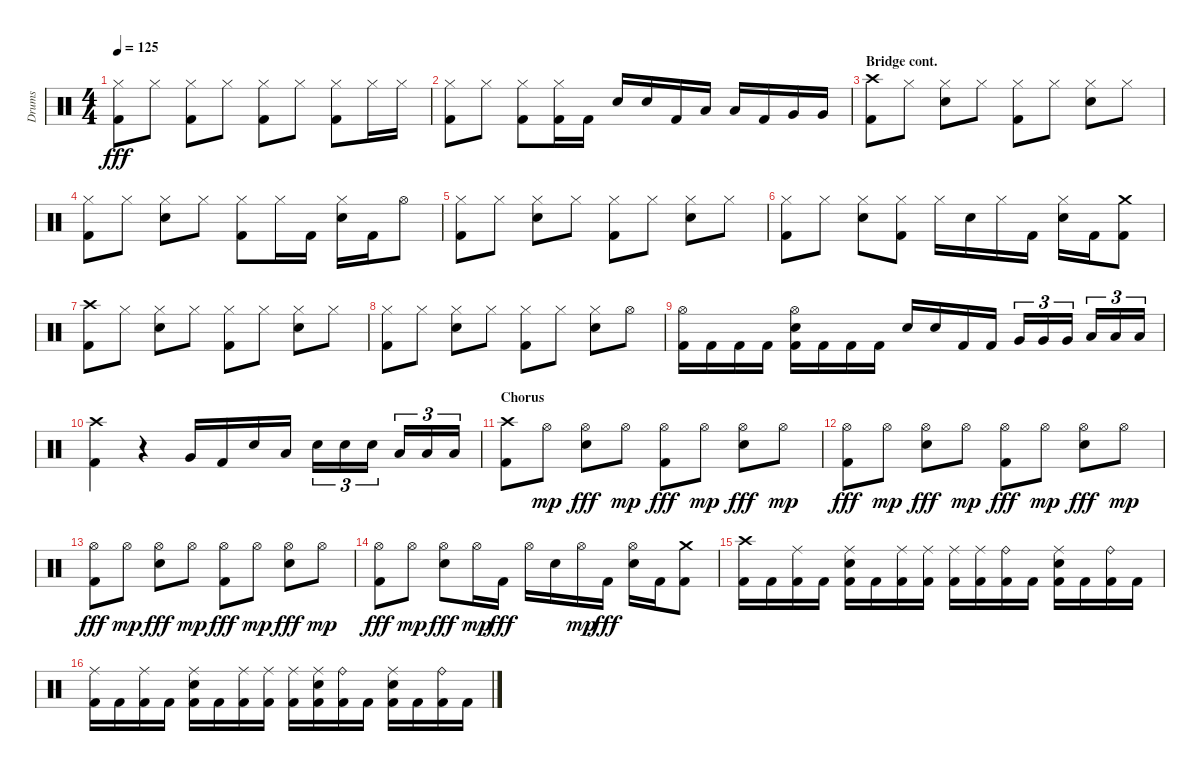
\track ("Drums" "Drums") {instrument percussion}
\staff {score}
\articulation defaults
\ts (4 4)
\tempo 125
\clef neutral
\ks aminor
("Kick (hit) 2" "Hi-Hat (closed)").8{dy fff} "Hi-Hat (closed)".8 ("Kick (hit) 2" "Hi-Hat (closed)").8 "Hi-Hat (closed)".8 ("Kick (hit) 2" "Hi-Hat (closed)").8 "Hi-Hat (closed)".8 ("Kick (hit) 2" "Hi-Hat (closed)").8 "Hi-Hat (closed)".16 "Hi-Hat (closed)".16 |
("Kick (hit) 2" "Hi-Hat (closed)").8 "Hi-Hat (closed)".8 ("Kick (hit) 2" "Hi-Hat (closed)").8 ("Kick (hit) 2" "Hi-Hat (closed)").16 "Kick (hit) 2".16 "Snare (hit) 2".16 "Snare (hit) 2".16 "Kick (hit) 2".16 "Low Tom (hit)".16 "Low Tom (hit)".16 "Kick (hit) 2".16 "Very Low Tom (hit)".16 "Very Low Tom (hit)".16 |
\section ("" "Bridge cont.")
("Kick (hit) 2" "Crash high (hit)").8 "Hi-Hat (closed)".8 ("Snare (hit) 2" "Hi-Hat (closed)").8 "Hi-Hat (closed)".8 ("Kick (hit) 2" "Hi-Hat (closed)").8 "Hi-Hat (closed)".8 ("Snare (hit) 2" "Hi-Hat (closed)").8 "Hi-Hat (closed)".8 |
("Kick (hit) 2" "Hi-Hat (closed)").8 "Hi-Hat (closed)".8 ("Snare (hit) 2" "Hi-Hat (closed)").8 "Hi-Hat (closed)".8 ("Kick (hit) 2" "Hi-Hat (closed)").8 "Hi-Hat (closed)".16 "Kick (hit) 2".16 ("Snare (hit) 2" "Hi-Hat (closed)").16 "Kick (hit) 2".16 "Hi-Hat (open)".8 |
("Kick (hit) 2" "Hi-Hat (closed)").8 "Hi-Hat (closed)".8 ("Snare (hit) 2" "Hi-Hat (closed)").8 "Hi-Hat (closed)".8 ("Kick (hit) 2" "Hi-Hat (closed)").8 "Hi-Hat (closed)".8 ("Snare (hit) 2" "Hi-Hat (closed)").8 "Hi-Hat (closed)".8 |
("Kick (hit) 2" "Hi-Hat (closed)").8 "Hi-Hat (closed)".8 ("Snare (hit) 2" "Hi-Hat (closed)").8 ("Kick (hit) 2" "Hi-Hat (closed)").8 "Hi-Hat (closed)".16 "Snare (hit) 2".16 "Hi-Hat (closed)".16 "Kick (hit) 2".16 ("Snare (hit) 2" "Hi-Hat (closed)").16 "Kick (hit) 2".16 ("Kick (hit) 2" "Crash medium (hit)").8 |
("Kick (hit) 2" "Crash high (hit)").8 "Hi-Hat (closed)".8 ("Snare (hit) 2" "Hi-Hat (closed)").8 "Hi-Hat (closed)".8 ("Kick (hit) 2" "Hi-Hat (closed)").8 "Hi-Hat (closed)".8 ("Snare (hit) 2" "Hi-Hat (closed)").8 "Hi-Hat (closed)".8 |
("Kick (hit) 2" "Hi-Hat (closed)").8 "Hi-Hat (closed)".8 ("Snare (hit) 2" "Hi-Hat (closed)").8 "Hi-Hat (closed)".8 ("Kick (hit) 2" "Hi-Hat (closed)").8 "Hi-Hat (closed)".8 ("Snare (hit) 2" "Hi-Hat (closed)").8 "Hi-Hat (open)".8 |
("Kick (hit) 2" "Hi-Hat (open)").16 "Kick (hit) 2".16 "Kick (hit) 2".16 "Kick (hit) 2".16 ("Kick (hit) 2" "Snare (hit) 2" "Hi-Hat (open)").16 "Kick (hit) 2".16 "Kick (hit) 2".16 "Kick (hit) 2".16 "Snare (hit) 2".16 "Snare (hit) 2".16 "Kick (hit) 2".16 "Kick (hit) 2".16 "Very Low Tom (hit)".16{tu (3 2)} "Very Low Tom (hit)".16{tu (3 2)} "Very Low Tom (hit)".16{tu (3 2)} "Low Floor Tom (hit)".16{tu (3 2)} "Low Floor Tom (hit)".16{tu (3 2)} "Low Floor Tom (hit)".16{tu (3 2)} |
("Kick (hit) 2" "Crash high (hit)").4 r.4 "Very Low Tom (hit)".16 "Kick (hit) 2".16 "Snare (hit) 2".16 "Low Floor Tom (hit)".16 "Snare (hit) 2".16{tu (3 2)} "Snare (hit) 2".16{tu (3 2)} "Snare (hit) 2".16{tu (3 2)} "Low Floor Tom (hit)".16{tu (3 2)} "Low Floor Tom (hit)".16{tu (3 2)} "Low Floor Tom (hit)".16{tu (3 2)} |
\section ("" "Chorus")
("Kick (hit) 2" "Crash high (hit)").8 "Hi-Hat (open)".8{dy mp} ("Snare (hit) 2" "Hi-Hat (open)").8{dy fff} "Hi-Hat (open)".8{dy mp} ("Kick (hit) 2" "Hi-Hat (open)").8{dy fff} "Hi-Hat (open)".8{dy mp} ("Snare (hit) 2" "Hi-Hat (open)").8{dy fff} "Hi-Hat (open)".8{dy mp} |
("Kick (hit) 2" "Hi-Hat (open)").8{dy fff} "Hi-Hat (open)".8{dy mp} ("Snare (hit) 2" "Hi-Hat (open)").8{dy fff} "Hi-Hat (open)".8{dy mp} ("Kick (hit) 2" "Hi-Hat (open)").8{dy fff} "Hi-Hat (open)".8{dy mp} ("Snare (hit) 2" "Hi-Hat (open)").8{dy fff} "Hi-Hat (open)".8{dy mp} |
("Kick (hit) 2" "Hi-Hat (open)").8{dy fff} "Hi-Hat (open)".8{dy mp} ("Snare (hit) 2" "Hi-Hat (open)").8{dy fff} "Hi-Hat (open)".8{dy mp} ("Kick (hit) 2" "Hi-Hat (open)").8{dy fff} "Hi-Hat (open)".8{dy mp} ("Snare (hit) 2" "Hi-Hat (open)").8{dy fff} "Hi-Hat (open)".8{dy mp} |
("Kick (hit) 2" "Hi-Hat (open)").8{dy fff} "Hi-Hat (open)".8{dy mp} ("Snare (hit) 2" "Hi-Hat (open)").8{dy fff} "Hi-Hat (open)".16{dy mp} "Kick (hit) 2".16{dy fff} "Hi-Hat (open)".16 "Snare (hit) 2".16 "Hi-Hat (open)".16{dy mp} "Kick (hit) 2".16{dy fff} ("Snare (hit) 2" "Hi-Hat (open)").16 "Kick (hit) 2".16 ("Kick (hit) 2" "Crash medium (hit)").8 |
("Kick (hit) 2" "Crash high (hit)").16 "Kick (hit) 2".16 ("Kick (hit) 2" "Ride (middle)").16 "Kick (hit) 2".16 ("Kick (hit) 2" "Snare (hit) 2" "Ride (middle)").16 "Kick (hit) 2".16 ("Kick (hit) 2" "Ride (middle)").16 ("Kick (hit) 2" "Ride (middle)").16 ("Kick (hit) 2" "Ride (middle)").16 ("Kick (hit) 2" "Ride (middle)").16 ("Kick (hit) 2" "Ride (bell)").16 "Kick (hit) 2".16 ("Kick (hit) 2" "Snare (hit) 2" "Ride (middle)").16 "Kick (hit) 2".16 ("Kick (hit) 2" "Ride (bell)").16 "Kick (hit) 2".16 |
("Kick (hit) 2" "Ride (middle)").16 "Kick (hit) 2".16 ("Kick (hit) 2" "Ride (middle)").16 "Kick (hit) 2".16 ("Kick (hit) 2" "Snare (hit) 2" "Ride (middle)").16 "Kick (hit) 2".16 ("Kick (hit) 2" "Ride (middle)").16 ("Kick (hit) 2" "Ride (middle)").16 ("Kick (hit) 2" "Ride (middle)").16 ("Kick (hit) 2" "Snare (hit) 2" "Ride (middle)").16 ("Kick (hit) 2" "Ride (bell)").16 "Kick (hit) 2".16 ("Kick (hit) 2" "Snare (hit) 2" "Ride (middle)").16 "Kick (hit) 2".16 ("Kick (hit) 2" "Ride (bell)").16 "Kick (hit) 2".16
